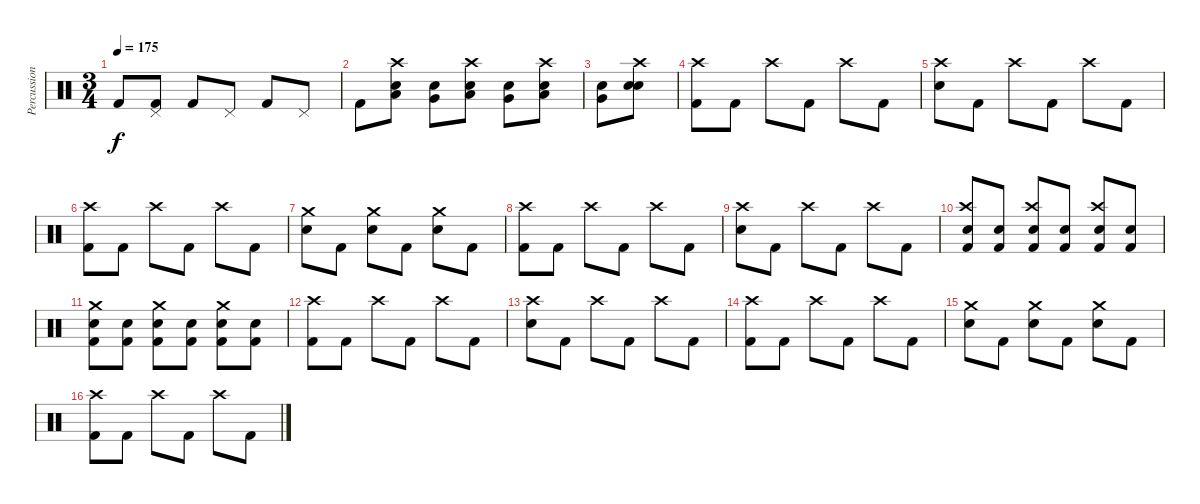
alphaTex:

\track ("Percussion" "Percussion") {instrument percussion}
\staff {score}
\articulation defaults
\ts (3 4)
\tempo 175
\clef neutral
\ks c "Kick (hit) 2".8{dy f}
("Pedal Hi-Hat (hit)" "Kick (hit) 2").8 "Kick (hit) 2".8 "Pedal Hi-Hat (hit)".8 "Kick (hit) 2".8 "Pedal Hi-Hat (hit)".8 |
"Kick (hit) 2".8 ("Crash high (hit)" "Low Tom (hit)" "Electric Snare (hit)").8 ("Very Low Tom (hit)" "Electric Snare (hit)").8 ("Crash high (hit)" "Low Tom (hit)" "Electric Snare (hit)").8 ("Very Low Tom (hit)" "Electric Snare (hit)").8 ("Crash high (hit)" "Low Tom (hit)" "Electric Snare (hit)").8 |
("Very Low Tom (hit)" "Electric Snare (hit)").8 ("Crash high (hit)" "Electric Snare (hit)" "Electric Snare (hit)").8 |
("Crash high (hit)" "Kick (hit) 2").8 "Kick (hit) 2".8 "Crash high (hit)".8 "Kick (hit) 2".8 "Crash high (hit)".8 "Kick (hit) 2".8 |
("Crash high (hit)" "Electric Snare (hit)").8 "Kick (hit) 2".8 "Crash high (hit)".8 "Kick (hit) 2".8 "Crash high (hit)".8 "Kick (hit) 2".8 |
("Crash high (hit)" "Kick (hit) 2").8 "Kick (hit) 2".8 "Crash high (hit)".8 "Kick (hit) 2".8 "Crash high (hit)".8 "Kick (hit) 2".8 |
("Crash medium (hit)" "Electric Snare (hit)").8 "Kick (hit) 2".8 ("Crash medium (hit)" "Electric Snare (hit)").8 "Kick (hit) 2".8 ("Crash medium (hit)" "Electric Snare (hit)").8 "Kick (hit) 2".8 |
("Crash high (hit)" "Kick (hit) 2").8 "Kick (hit) 2".8 "Crash high (hit)".8 "Kick (hit) 2".8 "Crash high (hit)".8 "Kick (hit) 2".8 |
("Crash high (hit)" "Electric Snare (hit)").8 "Kick (hit) 2".8 "Crash high (hit)".8 "Kick (hit) 2".8 "Crash high (hit)".8 "Kick (hit) 2".8 |
("Crash high (hit)" "Electric Snare (hit)" "Kick (hit) 2").8 ("Electric Snare (hit)" "Kick (hit) 2").8 ("Crash high (hit)" "Electric Snare (hit)" "Kick (hit) 2").8 ("Electric Snare (hit)" "Kick (hit) 2").8 ("Crash high (hit)" "Electric Snare (hit)" "Kick (hit) 2").8 ("Electric Snare (hit)" "Kick (hit) 2").8 |
("Crash medium (hit)" "Electric Snare (hit)" "Kick (hit) 2").8 ("Electric Snare (hit)" "Kick (hit) 2").8 ("Crash medium (hit)" "Electric Snare (hit)" "Kick (hit) 2").8 ("Electric Snare (hit)" "Kick (hit) 2").8 ("Crash medium (hit)" "Electric Snare (hit)" "Kick (hit) 2").8 ("Electric Snare (hit)" "Kick (hit) 2").8 |
("Crash high (hit)" "Kick (hit) 2").8 "Kick (hit) 2".8 "Crash high (hit)".8 "Kick (hit) 2".8 "Crash high (hit)".8 "Kick (hit) 2".8 |
("Crash high (hit)" "Electric Snare (hit)").8 "Kick (hit) 2".8 "Crash high (hit)".8 "Kick (hit) 2".8 "Crash high (hit)".8 "Kick (hit) 2".8 |
("Crash high (hit)" "Kick (hit) 2").8 "Kick (hit) 2".8 "Crash high (hit)".8 "Kick (hit) 2".8 "Crash high (hit)".8 "Kick (hit) 2".8 |
("Crash medium (hit)" "Electric Snare (hit)").8 "Kick (hit) 2".8 ("Crash medium (hit)" "Electric Snare (hit)").8 "Kick (hit) 2".8 ("Crash medium (hit)" "Electric Snare (hit)").8 "Kick (hit) 2".8 |
("Crash high (hit)" "Kick (hit) 2").8 "Kick (hit) 2".8 "Crash high (hit)".8 "Kick (hit) 2".8 "Crash high (hit)".8 "Kick (hit) 2".8
